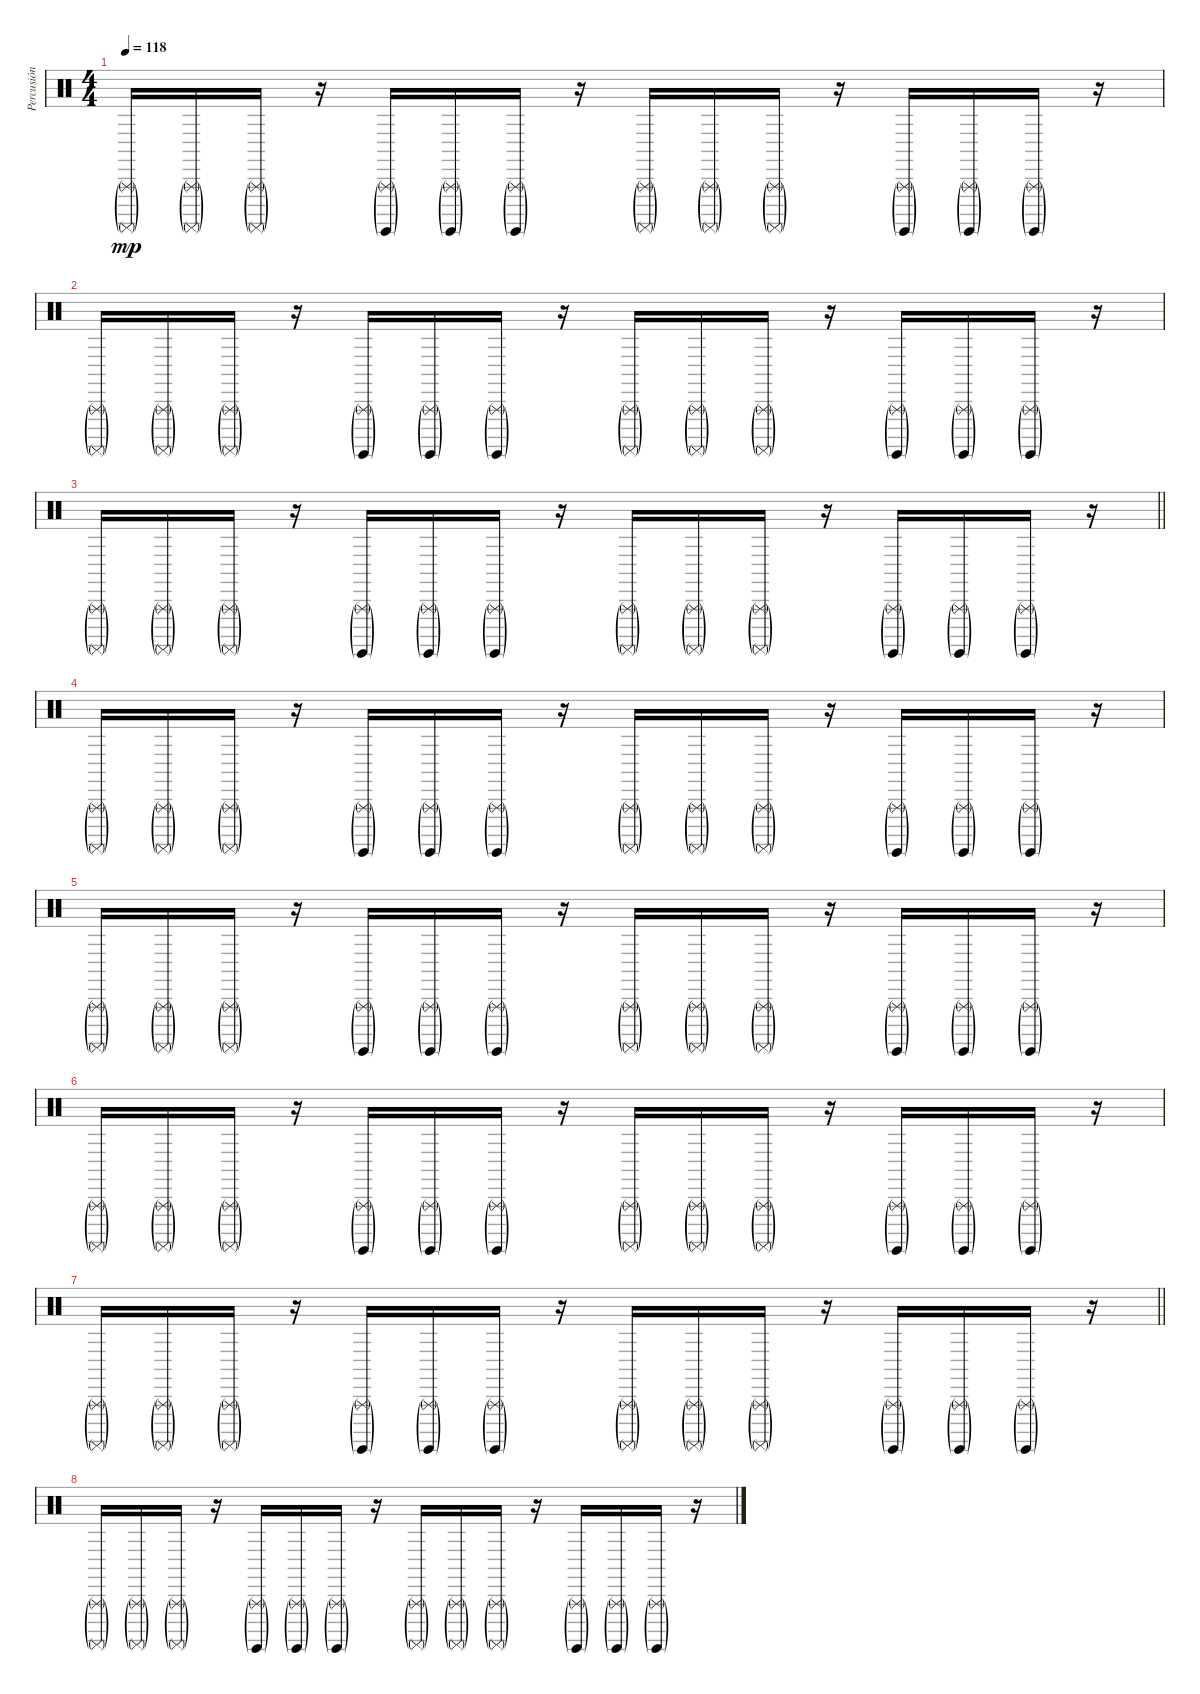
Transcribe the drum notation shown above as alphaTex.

\track ("Percusión" "Percusión") {instrument percussion}
\staff {score}
\articulation defaults
\ts (4 4)
\tempo 118
\clef neutral
\ks c
("Triangle (rnute)"{g} "Surdo (mute)"{g}).16{dy mp} ("Triangle (rnute)"{g} "Surdo (mute)"{g}).16 ("Triangle (rnute)"{g} "Surdo (mute)"{g}).16 r.16 ("Triangle (rnute)"{g} "Surdo (hit)"{g}).16 ("Triangle (rnute)"{g} "Surdo (hit)"{g}).16 ("Triangle (rnute)"{g} "Surdo (hit)"{g}).16 r.16 ("Triangle (rnute)"{g} "Surdo (mute)"{g}).16 ("Triangle (rnute)"{g} "Surdo (mute)"{g}).16 ("Triangle (rnute)"{g} "Surdo (mute)"{g}).16 r.16 ("Triangle (rnute)"{g} "Surdo (hit)"{g}).16 ("Triangle (rnute)"{g} "Surdo (hit)"{g}).16 ("Triangle (rnute)"{g} "Surdo (hit)"{g}).16 r.16 |
("Triangle (rnute)"{g} "Surdo (mute)"{g}).16 ("Triangle (rnute)"{g} "Surdo (mute)"{g}).16 ("Triangle (rnute)"{g} "Surdo (mute)"{g}).16 r.16 ("Triangle (rnute)"{g} "Surdo (hit)"{g}).16 ("Triangle (rnute)"{g} "Surdo (hit)"{g}).16 ("Triangle (rnute)"{g} "Surdo (hit)"{g}).16 r.16 ("Triangle (rnute)"{g} "Surdo (mute)"{g}).16 ("Triangle (rnute)"{g} "Surdo (mute)"{g}).16 ("Triangle (rnute)"{g} "Surdo (mute)"{g}).16 r.16 ("Triangle (rnute)"{g} "Surdo (hit)"{g}).16 ("Triangle (rnute)"{g} "Surdo (hit)"{g}).16 ("Triangle (rnute)"{g} "Surdo (hit)"{g}).16 r.16 |
\barLineRight lightlight
("Triangle (rnute)"{g} "Surdo (mute)"{g}).16 ("Triangle (rnute)"{g} "Surdo (mute)"{g}).16 ("Triangle (rnute)"{g} "Surdo (mute)"{g}).16 r.16 ("Triangle (rnute)"{g} "Surdo (hit)"{g}).16 ("Triangle (rnute)"{g} "Surdo (hit)"{g}).16 ("Triangle (rnute)"{g} "Surdo (hit)"{g}).16 r.16 ("Triangle (rnute)"{g} "Surdo (mute)"{g}).16 ("Triangle (rnute)"{g} "Surdo (mute)"{g}).16 ("Triangle (rnute)"{g} "Surdo (mute)"{g}).16 r.16 ("Triangle (rnute)"{g} "Surdo (hit)"{g}).16 ("Triangle (rnute)"{g} "Surdo (hit)"{g}).16 ("Triangle (rnute)"{g} "Surdo (hit)"{g}).16 r.16 |
("Triangle (rnute)"{g} "Surdo (mute)"{g}).16 ("Triangle (rnute)"{g} "Surdo (mute)"{g}).16 ("Triangle (rnute)"{g} "Surdo (mute)"{g}).16 r.16 ("Triangle (rnute)"{g} "Surdo (hit)"{g}).16 ("Triangle (rnute)"{g} "Surdo (hit)"{g}).16 ("Triangle (rnute)"{g} "Surdo (hit)"{g}).16 r.16 ("Triangle (rnute)"{g} "Surdo (mute)"{g}).16 ("Triangle (rnute)"{g} "Surdo (mute)"{g}).16 ("Triangle (rnute)"{g} "Surdo (mute)"{g}).16 r.16 ("Triangle (rnute)"{g} "Surdo (hit)"{g}).16 ("Triangle (rnute)"{g} "Surdo (hit)"{g}).16 ("Triangle (rnute)"{g} "Surdo (hit)"{g}).16 r.16 |
("Triangle (rnute)"{g} "Surdo (mute)"{g}).16 ("Triangle (rnute)"{g} "Surdo (mute)"{g}).16 ("Triangle (rnute)"{g} "Surdo (mute)"{g}).16 r.16 ("Triangle (rnute)"{g} "Surdo (hit)"{g}).16 ("Triangle (rnute)"{g} "Surdo (hit)"{g}).16 ("Triangle (rnute)"{g} "Surdo (hit)"{g}).16 r.16 ("Triangle (rnute)"{g} "Surdo (mute)"{g}).16 ("Triangle (rnute)"{g} "Surdo (mute)"{g}).16 ("Triangle (rnute)"{g} "Surdo (mute)"{g}).16 r.16 ("Triangle (rnute)"{g} "Surdo (hit)"{g}).16 ("Triangle (rnute)"{g} "Surdo (hit)"{g}).16 ("Triangle (rnute)"{g} "Surdo (hit)"{g}).16 r.16 |
("Triangle (rnute)"{g} "Surdo (mute)"{g}).16 ("Triangle (rnute)"{g} "Surdo (mute)"{g}).16 ("Triangle (rnute)"{g} "Surdo (mute)"{g}).16 r.16 ("Triangle (rnute)"{g} "Surdo (hit)"{g}).16 ("Triangle (rnute)"{g} "Surdo (hit)"{g}).16 ("Triangle (rnute)"{g} "Surdo (hit)"{g}).16 r.16 ("Triangle (rnute)"{g} "Surdo (mute)"{g}).16 ("Triangle (rnute)"{g} "Surdo (mute)"{g}).16 ("Triangle (rnute)"{g} "Surdo (mute)"{g}).16 r.16 ("Triangle (rnute)"{g} "Surdo (hit)"{g}).16 ("Triangle (rnute)"{g} "Surdo (hit)"{g}).16 ("Triangle (rnute)"{g} "Surdo (hit)"{g}).16 r.16 |
\barLineRight lightlight
("Triangle (rnute)"{g} "Surdo (mute)"{g}).16 ("Triangle (rnute)"{g} "Surdo (mute)"{g}).16 ("Triangle (rnute)"{g} "Surdo (mute)"{g}).16 r.16 ("Triangle (rnute)"{g} "Surdo (hit)"{g}).16 ("Triangle (rnute)"{g} "Surdo (hit)"{g}).16 ("Triangle (rnute)"{g} "Surdo (hit)"{g}).16 r.16 ("Triangle (rnute)"{g} "Surdo (mute)"{g}).16 ("Triangle (rnute)"{g} "Surdo (mute)"{g}).16 ("Triangle (rnute)"{g} "Surdo (mute)"{g}).16 r.16 ("Triangle (rnute)"{g} "Surdo (hit)"{g}).16 ("Triangle (rnute)"{g} "Surdo (hit)"{g}).16 ("Triangle (rnute)"{g} "Surdo (hit)"{g}).16 r.16 |
("Triangle (rnute)"{g} "Surdo (mute)"{g}).16 ("Triangle (rnute)"{g} "Surdo (mute)"{g}).16 ("Triangle (rnute)"{g} "Surdo (mute)"{g}).16 r.16 ("Triangle (rnute)"{g} "Surdo (hit)"{g}).16 ("Triangle (rnute)"{g} "Surdo (hit)"{g}).16 ("Triangle (rnute)"{g} "Surdo (hit)"{g}).16 r.16 ("Triangle (rnute)"{g} "Surdo (mute)"{g}).16 ("Triangle (rnute)"{g} "Surdo (mute)"{g}).16 ("Triangle (rnute)"{g} "Surdo (mute)"{g}).16 r.16 ("Triangle (rnute)"{g} "Surdo (hit)"{g}).16 ("Triangle (rnute)"{g} "Surdo (hit)"{g}).16 ("Triangle (rnute)"{g} "Surdo (hit)"{g}).16 r.16
